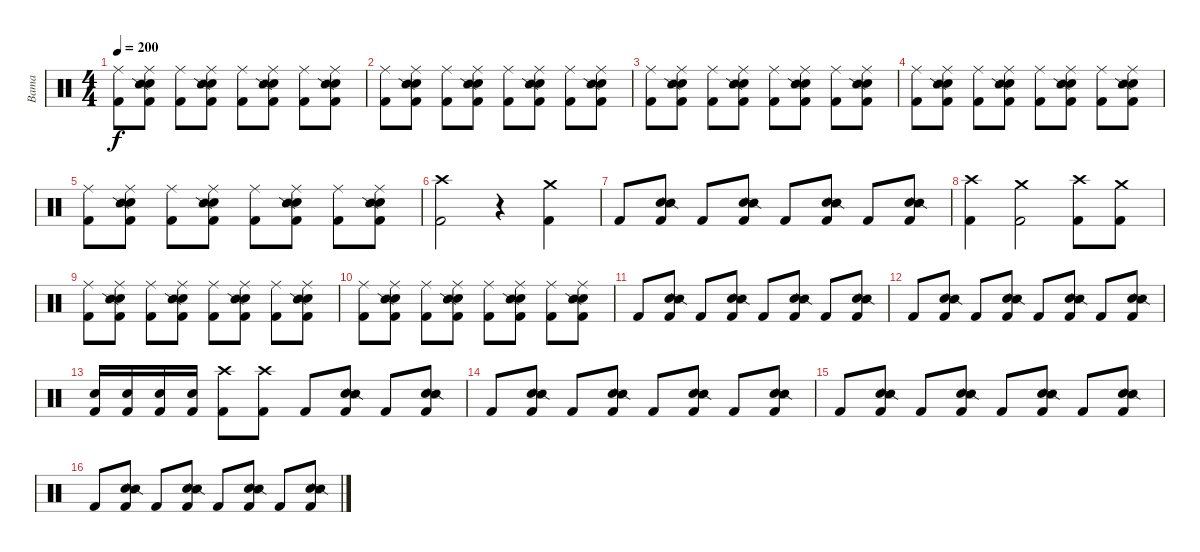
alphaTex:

\track ("Bama" "Bama") {instrument percussion}
\staff {score}
\articulation defaults
\ts (4 4)
\tempo 200
\clef neutral
\ks c
("Ride (middle)" "Kick (hit) 2").8{dy f} ("Ride (middle)" "Electric Snare (hit)" "Snare (side stick) 2" "Kick (hit) 2").8 ("Ride (middle)" "Kick (hit) 2").8 ("Ride (middle)" "Electric Snare (hit)" "Snare (side stick) 2" "Kick (hit) 2").8 ("Ride (middle)" "Kick (hit) 2").8 ("Ride (middle)" "Electric Snare (hit)" "Snare (side stick) 2" "Kick (hit) 2").8 ("Ride (middle)" "Kick (hit) 2").8 ("Ride (middle)" "Electric Snare (hit)" "Snare (side stick) 2" "Kick (hit) 2").8 |
("Ride (middle)" "Kick (hit) 2").8 ("Ride (middle)" "Electric Snare (hit)" "Snare (side stick) 2" "Kick (hit) 2").8 ("Ride (middle)" "Kick (hit) 2").8 ("Ride (middle)" "Electric Snare (hit)" "Snare (side stick) 2" "Kick (hit) 2").8 ("Ride (middle)" "Kick (hit) 2").8 ("Ride (middle)" "Electric Snare (hit)" "Snare (side stick) 2" "Kick (hit) 2").8 ("Ride (middle)" "Kick (hit) 2").8 ("Ride (middle)" "Electric Snare (hit)" "Snare (side stick) 2" "Kick (hit) 2").8 |
("Ride (middle)" "Kick (hit) 2").8 ("Ride (middle)" "Electric Snare (hit)" "Snare (side stick) 2" "Kick (hit) 2").8 ("Ride (middle)" "Kick (hit) 2").8 ("Ride (middle)" "Electric Snare (hit)" "Snare (side stick) 2" "Kick (hit) 2").8 ("Ride (middle)" "Kick (hit) 2").8 ("Ride (middle)" "Electric Snare (hit)" "Snare (side stick) 2" "Kick (hit) 2").8 ("Ride (middle)" "Kick (hit) 2").8 ("Ride (middle)" "Electric Snare (hit)" "Snare (side stick) 2" "Kick (hit) 2").8 |
("Ride (middle)" "Kick (hit) 2").8 ("Ride (middle)" "Electric Snare (hit)" "Snare (side stick) 2" "Kick (hit) 2").8 ("Ride (middle)" "Kick (hit) 2").8 ("Ride (middle)" "Electric Snare (hit)" "Snare (side stick) 2" "Kick (hit) 2").8 ("Ride (middle)" "Kick (hit) 2").8 ("Ride (middle)" "Electric Snare (hit)" "Snare (side stick) 2" "Kick (hit) 2").8 ("Ride (middle)" "Kick (hit) 2").8 ("Ride (middle)" "Electric Snare (hit)" "Snare (side stick) 2" "Kick (hit) 2").8 |
("Ride (middle)" "Kick (hit) 2").8 ("Ride (middle)" "Electric Snare (hit)" "Snare (side stick) 2" "Kick (hit) 2").8 ("Ride (middle)" "Kick (hit) 2").8 ("Ride (middle)" "Electric Snare (hit)" "Snare (side stick) 2" "Kick (hit) 2").8 ("Ride (middle)" "Kick (hit) 2").8 ("Ride (middle)" "Electric Snare (hit)" "Snare (side stick) 2" "Kick (hit) 2").8 ("Ride (middle)" "Kick (hit) 2").8 ("Ride (middle)" "Electric Snare (hit)" "Snare (side stick) 2" "Kick (hit) 2").8 |
("Crash high (hit)" "Kick (hit) 2").2 r.4 ("Crash medium (hit)" "Kick (hit) 2").4 |
"Kick (hit) 2".8 ("Electric Snare (hit)" "Snare (side stick) 2" "Kick (hit) 2").8 "Kick (hit) 2".8 ("Electric Snare (hit)" "Snare (side stick) 2" "Kick (hit) 2").8 "Kick (hit) 2".8 ("Electric Snare (hit)" "Snare (side stick) 2" "Kick (hit) 2").8 "Kick (hit) 2".8 ("Electric Snare (hit)" "Snare (side stick) 2" "Kick (hit) 2").8 |
("Crash high (hit)" "Kick (hit) 2").4 ("Crash medium (hit)" "Kick (hit) 2").2 ("Crash high (hit)" "Kick (hit) 2").8 ("Crash medium (hit)" "Kick (hit) 2").8 |
("Ride (middle)" "Kick (hit) 2").8 ("Ride (middle)" "Electric Snare (hit)" "Snare (side stick) 2" "Kick (hit) 2").8 ("Ride (middle)" "Kick (hit) 2").8 ("Ride (middle)" "Electric Snare (hit)" "Snare (side stick) 2" "Kick (hit) 2").8 ("Ride (middle)" "Kick (hit) 2").8 ("Ride (middle)" "Electric Snare (hit)" "Snare (side stick) 2" "Kick (hit) 2").8 ("Ride (middle)" "Kick (hit) 2").8 ("Ride (middle)" "Electric Snare (hit)" "Snare (side stick) 2" "Kick (hit) 2").8 |
("Ride (middle)" "Kick (hit) 2").8 ("Ride (middle)" "Electric Snare (hit)" "Snare (side stick) 2" "Kick (hit) 2").8 ("Ride (middle)" "Kick (hit) 2").8 ("Ride (middle)" "Electric Snare (hit)" "Snare (side stick) 2" "Kick (hit) 2").8 ("Ride (middle)" "Kick (hit) 2").8 ("Ride (middle)" "Electric Snare (hit)" "Snare (side stick) 2" "Kick (hit) 2").8 ("Ride (middle)" "Kick (hit) 2").8 ("Ride (middle)" "Electric Snare (hit)" "Snare (side stick) 2" "Kick (hit) 2").8 |
"Kick (hit) 2".8 ("Electric Snare (hit)" "Snare (side stick) 2" "Kick (hit) 2").8 "Kick (hit) 2".8 ("Electric Snare (hit)" "Snare (side stick) 2" "Kick (hit) 2").8 "Kick (hit) 2".8 ("Electric Snare (hit)" "Snare (side stick) 2" "Kick (hit) 2").8 "Kick (hit) 2".8 ("Electric Snare (hit)" "Snare (side stick) 2" "Kick (hit) 2").8 |
"Kick (hit) 2".8 ("Electric Snare (hit)" "Snare (side stick) 2" "Kick (hit) 2").8 "Kick (hit) 2".8 ("Electric Snare (hit)" "Snare (side stick) 2" "Kick (hit) 2").8 "Kick (hit) 2".8 ("Electric Snare (hit)" "Snare (side stick) 2" "Kick (hit) 2").8 "Kick (hit) 2".8 ("Electric Snare (hit)" "Snare (side stick) 2" "Kick (hit) 2").8 |
("Electric Snare (hit)" "Kick (hit) 2").16 ("Electric Snare (hit)" "Kick (hit) 2").16 ("Electric Snare (hit)" "Kick (hit) 2").16 ("Electric Snare (hit)" "Kick (hit) 2").16 ("Crash high (hit)" "Kick (hit) 2").8 ("Crash high (hit)" "Kick (hit) 2").8 "Kick (hit) 2".8 ("Electric Snare (hit)" "Snare (side stick) 2" "Kick (hit) 2").8 "Kick (hit) 2".8 ("Electric Snare (hit)" "Snare (side stick) 2" "Kick (hit) 2").8 |
"Kick (hit) 2".8 ("Electric Snare (hit)" "Snare (side stick) 2" "Kick (hit) 2").8 "Kick (hit) 2".8 ("Electric Snare (hit)" "Snare (side stick) 2" "Kick (hit) 2").8 "Kick (hit) 2".8 ("Electric Snare (hit)" "Snare (side stick) 2" "Kick (hit) 2").8 "Kick (hit) 2".8 ("Electric Snare (hit)" "Snare (side stick) 2" "Kick (hit) 2").8 |
"Kick (hit) 2".8 ("Electric Snare (hit)" "Snare (side stick) 2" "Kick (hit) 2").8 "Kick (hit) 2".8 ("Electric Snare (hit)" "Snare (side stick) 2" "Kick (hit) 2").8 "Kick (hit) 2".8 ("Electric Snare (hit)" "Snare (side stick) 2" "Kick (hit) 2").8 "Kick (hit) 2".8 ("Electric Snare (hit)" "Snare (side stick) 2" "Kick (hit) 2").8 |
"Kick (hit) 2".8 ("Electric Snare (hit)" "Snare (side stick) 2" "Kick (hit) 2").8 "Kick (hit) 2".8 ("Electric Snare (hit)" "Snare (side stick) 2" "Kick (hit) 2").8 "Kick (hit) 2".8 ("Electric Snare (hit)" "Snare (side stick) 2" "Kick (hit) 2").8 "Kick (hit) 2".8 ("Electric Snare (hit)" "Snare (side stick) 2" "Kick (hit) 2").8
